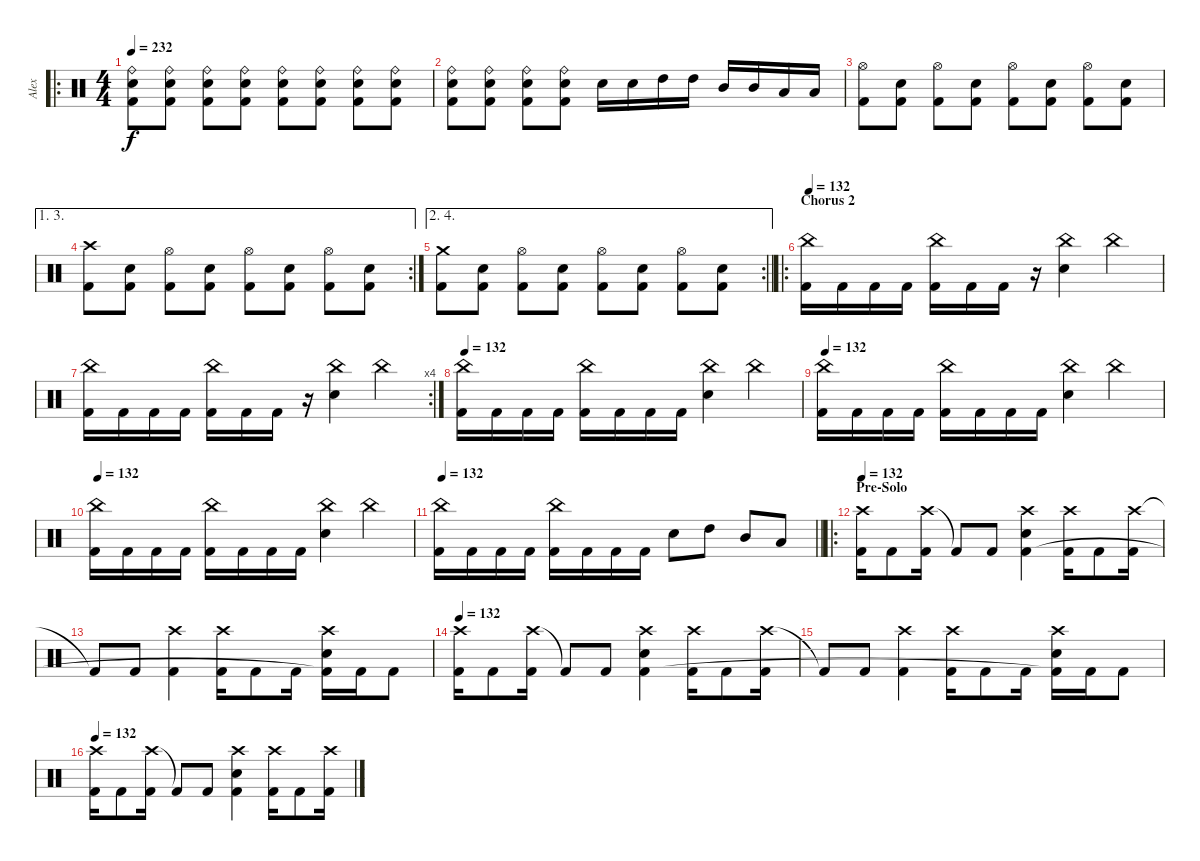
\track ("Alex" "Alex") {instrument percussion}
\staff {score}
\articulation defaults
\ro
\ts (4 4)
\tempo 232
\clef neutral
\ks c
("Ride (bell)" "Electric Snare (hit)" "Kick (hit) 2").8{dy f} ("Ride (bell)" "Electric Snare (hit)" "Kick (hit) 2").8 ("Ride (bell)" "Electric Snare (hit)" "Kick (hit) 2").8 ("Ride (bell)" "Electric Snare (hit)" "Kick (hit) 2").8 ("Ride (bell)" "Electric Snare (hit)" "Kick (hit) 2").8 ("Ride (bell)" "Electric Snare (hit)" "Kick (hit) 2").8 ("Ride (bell)" "Electric Snare (hit)" "Kick (hit) 2").8 ("Ride (bell)" "Electric Snare (hit)" "Kick (hit) 2").8 |
("Ride (bell)" "Electric Snare (hit)" "Kick (hit) 2").8 ("Ride (bell)" "Electric Snare (hit)" "Kick (hit) 2").8 ("Ride (bell)" "Electric Snare (hit)" "Kick (hit) 2").8 ("Ride (bell)" "Electric Snare (hit)" "Kick (hit) 2").8 "Electric Snare (hit)".16 "Electric Snare (hit)".16 "High Tom (hit)".16 "High Tom (hit)".16 "Mid Tom (hit)".16 "Mid Tom (hit)".16 "Low Tom (hit)".16 "Low Tom (hit)".16 |
("Hi-Hat (open)" "Kick (hit) 2").8 ("Electric Snare (hit)" "Kick (hit) 2").8 ("Hi-Hat (open)" "Kick (hit) 2").8 ("Electric Snare (hit)" "Kick (hit) 2").8 ("Hi-Hat (open)" "Kick (hit) 2").8 ("Electric Snare (hit)" "Kick (hit) 2").8 ("Hi-Hat (open)" "Kick (hit) 2").8 ("Electric Snare (hit)" "Kick (hit) 2").8 |
\ae (1 3)
\rc 2
("Crash high (hit)" "Kick (hit) 2").8 ("Electric Snare (hit)" "Kick (hit) 2").8 ("Hi-Hat (open)" "Kick (hit) 2").8 ("Electric Snare (hit)" "Kick (hit) 2").8 ("Hi-Hat (open)" "Kick (hit) 2").8 ("Electric Snare (hit)" "Kick (hit) 2").8 ("Hi-Hat (open)" "Kick (hit) 2").8 ("Electric Snare (hit)" "Kick (hit) 2").8 |
\ae (2 4)
\rc 2
\barLineRight lightlight
("Crash medium (hit)" "Kick (hit) 2").8 ("Electric Snare (hit)" "Kick (hit) 2").8 ("Hi-Hat (open)" "Kick (hit) 2").8 ("Electric Snare (hit)" "Kick (hit) 2").8 ("Hi-Hat (open)" "Kick (hit) 2").8 ("Electric Snare (hit)" "Kick (hit) 2").8 ("Hi-Hat (open)" "Kick (hit) 2").8 ("Electric Snare (hit)" "Kick (hit) 2").8 |
\ro
\section ("" "Chorus 2")
\tempo 132
("China (hit)" "Kick (hit) 2").16 "Kick (hit) 2".16 "Kick (hit) 2".16 "Kick (hit) 2".16 ("China (hit)" "Kick (hit) 2").16 "Kick (hit) 2".16 "Kick (hit) 2".16 r.16 ("China (hit)" "Electric Snare (hit)").4 "China (hit)".4 |
\rc 4
("China (hit)" "Kick (hit) 2").16 "Kick (hit) 2".16 "Kick (hit) 2".16 "Kick (hit) 2".16 ("China (hit)" "Kick (hit) 2").16 "Kick (hit) 2".16 "Kick (hit) 2".16 r.16 ("China (hit)" "Electric Snare (hit)").4 "China (hit)".4 |
\tempo 132
("China (hit)" "Kick (hit) 2").16 "Kick (hit) 2".16 "Kick (hit) 2".16 "Kick (hit) 2".16 ("China (hit)" "Kick (hit) 2").16 "Kick (hit) 2".16 "Kick (hit) 2".16 "Kick (hit) 2".16 ("China (hit)" "Electric Snare (hit)").4 "China (hit)".4 |
\tempo 132
("China (hit)" "Kick (hit) 2").16 "Kick (hit) 2".16 "Kick (hit) 2".16 "Kick (hit) 2".16 ("China (hit)" "Kick (hit) 2").16 "Kick (hit) 2".16 "Kick (hit) 2".16 "Kick (hit) 2".16 ("China (hit)" "Electric Snare (hit)").4 "China (hit)".4 |
\tempo 132
("China (hit)" "Kick (hit) 2").16 "Kick (hit) 2".16 "Kick (hit) 2".16 "Kick (hit) 2".16 ("China (hit)" "Kick (hit) 2").16 "Kick (hit) 2".16 "Kick (hit) 2".16 "Kick (hit) 2".16 ("China (hit)" "Electric Snare (hit)").4 "China (hit)".4 |
\tempo 132
\barLineRight lightlight
("China (hit)" "Kick (hit) 2").16 "Kick (hit) 2".16 "Kick (hit) 2".16 "Kick (hit) 2".16 ("China (hit)" "Kick (hit) 2").16 "Kick (hit) 2".16 "Kick (hit) 2".16 "Kick (hit) 2".16 "Electric Snare (hit)".8 "High Tom (hit)".8 "Mid Tom (hit)".8 "Low Tom (hit)".8 |
\ro
\section ("" "Pre-Solo")
\tempo 132
("Crash high (hit)" "Kick (hit) 2").16 "Kick (hit) 2".8 ("Crash high (hit)" "Kick (hit) 2").16 "Kick (hit) 2"{t}.8 "Kick (hit) 2".8 ("Crash high (hit)" "Electric Snare (hit)" "Kick (hit) 2").4 ("Crash high (hit)" "Kick (hit) 2").16 "Kick (hit) 2".8 ("Crash high (hit)" "Kick (hit) 2").16 |
"Kick (hit) 2"{t}.8 "Kick (hit) 2".8 ("Crash high (hit)" "Kick (hit) 2").4 ("Crash high (hit)" "Kick (hit) 2").16 "Kick (hit) 2".8 "Kick (hit) 2".16 ("Crash high (hit)" "Electric Snare (hit)" "Kick (hit) 2"{t}).16 "Kick (hit) 2".16 "Kick (hit) 2".8 |
\tempo 132
("Crash high (hit)" "Kick (hit) 2").16 "Kick (hit) 2".8 ("Crash high (hit)" "Kick (hit) 2").16 "Kick (hit) 2"{t}.8 "Kick (hit) 2".8 ("Crash high (hit)" "Electric Snare (hit)" "Kick (hit) 2").4 ("Crash high (hit)" "Kick (hit) 2").16 "Kick (hit) 2".8 ("Crash high (hit)" "Kick (hit) 2").16 |
"Kick (hit) 2"{t}.8 "Kick (hit) 2".8 ("Crash high (hit)" "Kick (hit) 2").4 ("Crash high (hit)" "Kick (hit) 2").16 "Kick (hit) 2".8 "Kick (hit) 2".16 ("Crash high (hit)" "Electric Snare (hit)" "Kick (hit) 2"{t}).16 "Kick (hit) 2".16 "Kick (hit) 2".8 |
\tempo 132
("Crash high (hit)" "Kick (hit) 2").16 "Kick (hit) 2".8 ("Crash high (hit)" "Kick (hit) 2").16 "Kick (hit) 2"{t}.8 "Kick (hit) 2".8 ("Crash high (hit)" "Electric Snare (hit)" "Kick (hit) 2").4 ("Crash high (hit)" "Kick (hit) 2").16 "Kick (hit) 2".8 ("Crash high (hit)" "Kick (hit) 2").16
